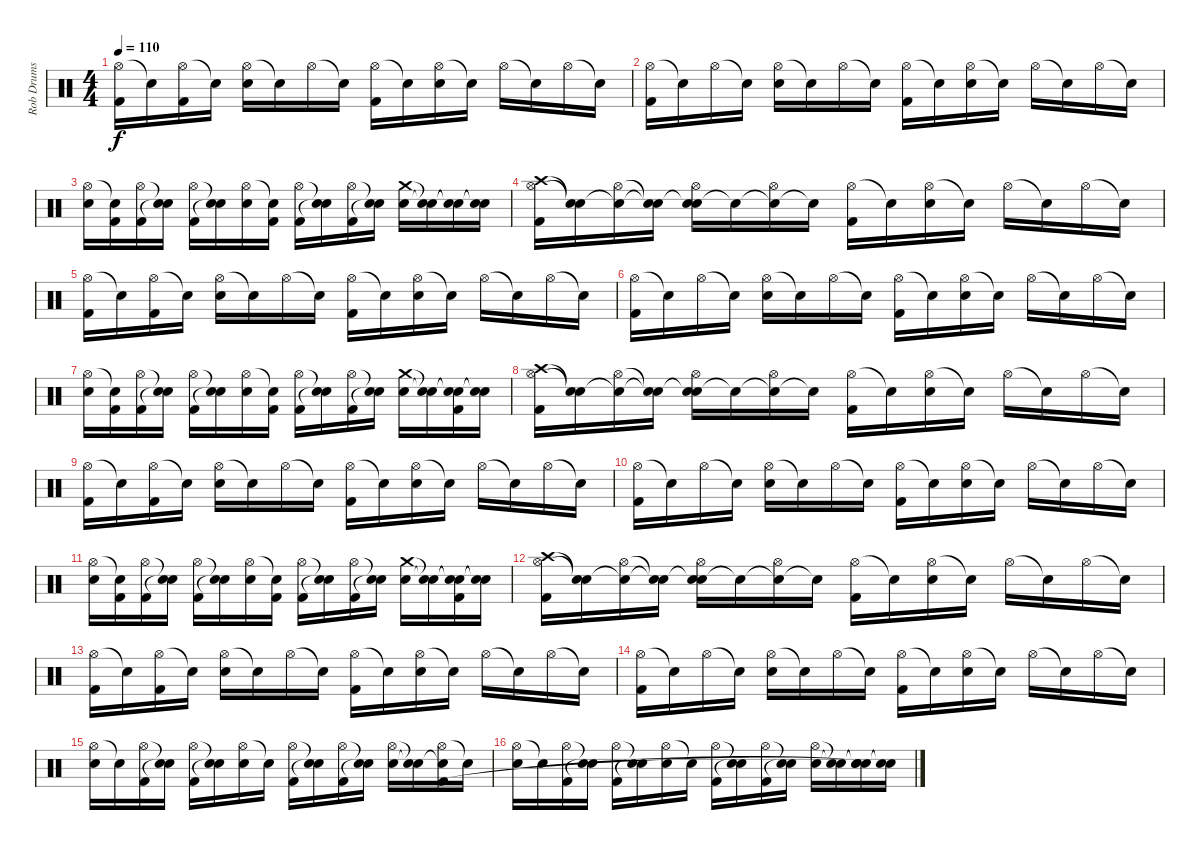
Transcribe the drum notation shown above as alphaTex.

\track ("Rob Drums" "Rob Drums") {instrument percussion}
\staff {score}
\articulation defaults
\ts (4 4)
\tempo 110
\clef neutral
\ks c
("Hi-Hat (open)" "Kick (hit) 2").16{dy f} "Snare (hit)"{t}.16 ("Hi-Hat (open)" "Kick (hit) 2").16 "Snare (hit)"{t}.16 ("Hi-Hat (open)" "Electric Snare (hit)").16 "Snare (hit)"{t}.16 "Hi-Hat (open)".16 "Snare (hit)"{t}.16 ("Hi-Hat (open)" "Kick (hit) 2").16 "Snare (hit)"{t}.16 ("Hi-Hat (open)" "Electric Snare (hit)").16 "Snare (hit)"{t}.16 "Hi-Hat (open)".16 "Snare (hit)"{t}.16 "Hi-Hat (open)".16 "Snare (hit)"{t}.16 |
("Hi-Hat (open)" "Kick (hit) 2").16 "Snare (hit)"{t}.16 "Hi-Hat (open)".16 "Snare (hit)"{t}.16 ("Hi-Hat (open)" "Electric Snare (hit)").16 "Snare (hit)"{t}.16 "Hi-Hat (open)".16 "Snare (hit)"{t}.16 ("Hi-Hat (open)" "Kick (hit) 2").16 "Snare (hit)"{t}.16 ("Hi-Hat (open)" "Electric Snare (hit)").16 "Snare (hit)"{t}.16 "Hi-Hat (open)".16 "Snare (hit)"{t}.16 "Hi-Hat (open)".16 "Snare (hit)"{t}.16 |
("Hi-Hat (open)" "Electric Snare (hit)").16 ("Snare (hit)"{t} "Kick (hit) 2").16 ("Hi-Hat (open)" "Kick (hit) 2").16 ("Snare (hit)"{t} "Snare (hit)"{t}).16 ("Hi-Hat (open)" "Kick (hit) 2").16 ("Snare (hit)"{t} "Snare (hit)"{t}).16 ("Hi-Hat (open)" "Electric Snare (hit)").16 ("Snare (hit)"{t} "Kick (hit) 2").16 ("Hi-Hat (open)" "Kick (hit) 2").16 ("Snare (hit)"{t} "Snare (hit)"{t}).16 ("Hi-Hat (open)" "Kick (hit) 2").16 ("Snare (hit)"{t} "Snare (hit)"{t}).16 ("Crash medium (hit)" "Electric Snare (hit)").16 ("Snare (hit)"{t} "Snare (hit)"{t}).16 ("Snare (hit)"{t} "Snare (hit)"{t}).16 ("Snare (hit)"{t} "Snare (hit)"{t}).16 |
("Crash high (hit)" "Hi-Hat (open)" "Kick (hit) 2").16 ("Snare (hit)"{t} "Snare (hit)"{t}).16 ("Snare (hit)"{t} "Hi-Hat (open)").16 ("Snare (hit)"{t} "Snare (hit)"{t}).16 ("Snare (hit)"{t} "Hi-Hat (open)" "Electric Snare (hit)").16 "Snare (hit)"{t}.16 ("Snare (hit)"{t} "Hi-Hat (open)").16 "Snare (hit)"{t}.16 ("Hi-Hat (open)" "Kick (hit) 2").16 "Snare (hit)"{t}.16 ("Hi-Hat (open)" "Electric Snare (hit)").16 "Snare (hit)"{t}.16 "Hi-Hat (open)".16 "Snare (hit)"{t}.16 "Hi-Hat (open)".16 "Snare (hit)"{t}.16 |
("Hi-Hat (open)" "Kick (hit) 2").16 "Snare (hit)"{t}.16 ("Hi-Hat (open)" "Kick (hit) 2").16 "Snare (hit)"{t}.16 ("Hi-Hat (open)" "Electric Snare (hit)").16 "Snare (hit)"{t}.16 "Hi-Hat (open)".16 "Snare (hit)"{t}.16 ("Hi-Hat (open)" "Kick (hit) 2").16 "Snare (hit)"{t}.16 ("Hi-Hat (open)" "Electric Snare (hit)").16 "Snare (hit)"{t}.16 "Hi-Hat (open)".16 "Snare (hit)"{t}.16 "Hi-Hat (open)".16 "Snare (hit)"{t}.16 |
("Hi-Hat (open)" "Kick (hit) 2").16 "Snare (hit)"{t}.16 "Hi-Hat (open)".16 "Snare (hit)"{t}.16 ("Hi-Hat (open)" "Electric Snare (hit)").16 "Snare (hit)"{t}.16 "Hi-Hat (open)".16 "Snare (hit)"{t}.16 ("Hi-Hat (open)" "Kick (hit) 2").16 "Snare (hit)"{t}.16 ("Hi-Hat (open)" "Electric Snare (hit)").16 "Snare (hit)"{t}.16 "Hi-Hat (open)".16 "Snare (hit)"{t}.16 "Hi-Hat (open)".16 "Snare (hit)"{t}.16 |
("Hi-Hat (open)" "Electric Snare (hit)").16 ("Snare (hit)"{t} "Kick (hit) 2").16 ("Hi-Hat (open)" "Kick (hit) 2").16 ("Snare (hit)"{t} "Snare (hit)"{t}).16 ("Hi-Hat (open)" "Kick (hit) 2").16 ("Snare (hit)"{t} "Snare (hit)"{t}).16 ("Hi-Hat (open)" "Electric Snare (hit)").16 ("Snare (hit)"{t} "Kick (hit) 2").16 ("Hi-Hat (open)" "Kick (hit) 2").16 ("Snare (hit)"{t} "Snare (hit)"{t}).16 ("Hi-Hat (open)" "Kick (hit) 2").16 ("Snare (hit)"{t} "Snare (hit)"{t}).16 ("Crash medium (hit)" "Electric Snare (hit)").16 ("Snare (hit)"{t} "Snare (hit)"{t}).16 ("Snare (hit)"{t} "Snare (hit)"{t} "Kick (hit) 2").16 ("Snare (hit)"{t} "Snare (hit)"{t}).16 |
("Crash high (hit)" "Hi-Hat (open)" "Kick (hit) 2").16{volume 13} ("Snare (hit)"{t} "Snare (hit)"{t}).16 ("Snare (hit)"{t} "Hi-Hat (open)").16 ("Snare (hit)"{t} "Snare (hit)"{t}).16 ("Snare (hit)"{t} "Hi-Hat (open)" "Electric Snare (hit)").16 "Snare (hit)"{t}.16 ("Snare (hit)"{t} "Hi-Hat (open)").16 "Snare (hit)"{t}.16 ("Hi-Hat (open)" "Kick (hit) 2").16 "Snare (hit)"{t}.16 ("Hi-Hat (open)" "Electric Snare (hit)").16 "Snare (hit)"{t}.16 "Hi-Hat (open)".16 "Snare (hit)"{t}.16 "Hi-Hat (open)".16 "Snare (hit)"{t}.16 |
("Hi-Hat (open)" "Kick (hit) 2").16 "Snare (hit)"{t}.16 ("Hi-Hat (open)" "Kick (hit) 2").16 "Snare (hit)"{t}.16 ("Hi-Hat (open)" "Electric Snare (hit)").16 "Snare (hit)"{t}.16 "Hi-Hat (open)".16 "Snare (hit)"{t}.16 ("Hi-Hat (open)" "Kick (hit) 2").16 "Snare (hit)"{t}.16 ("Hi-Hat (open)" "Electric Snare (hit)").16 "Snare (hit)"{t}.16 "Hi-Hat (open)".16 "Snare (hit)"{t}.16 "Hi-Hat (open)".16 "Snare (hit)"{t}.16 |
("Hi-Hat (open)" "Kick (hit) 2").16 "Snare (hit)"{t}.16 "Hi-Hat (open)".16 "Snare (hit)"{t}.16 ("Hi-Hat (open)" "Electric Snare (hit)").16 "Snare (hit)"{t}.16 "Hi-Hat (open)".16 "Snare (hit)"{t}.16 ("Hi-Hat (open)" "Kick (hit) 2").16 "Snare (hit)"{t}.16 ("Hi-Hat (open)" "Electric Snare (hit)").16 "Snare (hit)"{t}.16 "Hi-Hat (open)".16 "Snare (hit)"{t}.16 "Hi-Hat (open)".16 "Snare (hit)"{t}.16 |
("Hi-Hat (open)" "Electric Snare (hit)").16 ("Snare (hit)"{t} "Kick (hit) 2").16 ("Hi-Hat (open)" "Kick (hit) 2").16 ("Snare (hit)"{t} "Snare (hit)"{t}).16 ("Hi-Hat (open)" "Kick (hit) 2").16 ("Snare (hit)"{t} "Snare (hit)"{t}).16 ("Hi-Hat (open)" "Electric Snare (hit)").16 ("Snare (hit)"{t} "Kick (hit) 2").16 ("Hi-Hat (open)" "Kick (hit) 2").16 ("Snare (hit)"{t} "Snare (hit)"{t}).16 ("Hi-Hat (open)" "Kick (hit) 2").16 ("Snare (hit)"{t} "Snare (hit)"{t}).16 ("Crash medium (hit)" "Electric Snare (hit)").16 ("Snare (hit)"{t} "Snare (hit)"{t}).16 ("Snare (hit)"{t} "Snare (hit)"{t} "Kick (hit) 2").16 ("Snare (hit)"{t} "Snare (hit)"{t}).16 |
("Crash high (hit)" "Hi-Hat (open)" "Kick (hit) 2").16 ("Snare (hit)"{t} "Snare (hit)"{t}).16 ("Snare (hit)"{t} "Hi-Hat (open)").16 ("Snare (hit)"{t} "Snare (hit)"{t}).16 ("Snare (hit)"{t} "Hi-Hat (open)" "Electric Snare (hit)").16 "Snare (hit)"{t}.16 ("Snare (hit)"{t} "Hi-Hat (open)").16 "Snare (hit)"{t}.16 ("Hi-Hat (open)" "Kick (hit) 2").16 "Snare (hit)"{t}.16 ("Hi-Hat (open)" "Electric Snare (hit)").16 "Snare (hit)"{t}.16 "Hi-Hat (open)".16 "Snare (hit)"{t}.16 "Hi-Hat (open)".16 "Snare (hit)"{t}.16 |
("Hi-Hat (open)" "Kick (hit) 2").16 "Snare (hit)"{t}.16 ("Hi-Hat (open)" "Kick (hit) 2").16 "Snare (hit)"{t}.16 ("Hi-Hat (open)" "Electric Snare (hit)").16 "Snare (hit)"{t}.16 "Hi-Hat (open)".16 "Snare (hit)"{t}.16 ("Hi-Hat (open)" "Kick (hit) 2").16 "Snare (hit)"{t}.16 ("Hi-Hat (open)" "Electric Snare (hit)").16 "Snare (hit)"{t}.16 "Hi-Hat (open)".16 "Snare (hit)"{t}.16 "Hi-Hat (open)".16 "Snare (hit)"{t}.16 |
("Hi-Hat (open)" "Kick (hit) 2").16 "Snare (hit)"{t}.16 "Hi-Hat (open)".16 "Snare (hit)"{t}.16 ("Hi-Hat (open)" "Electric Snare (hit)").16 "Snare (hit)"{t}.16 "Hi-Hat (open)".16 "Snare (hit)"{t}.16 ("Hi-Hat (open)" "Kick (hit) 2").16 "Snare (hit)"{t}.16 ("Hi-Hat (open)" "Electric Snare (hit)").16 "Snare (hit)"{t}.16 "Hi-Hat (open)".16 "Snare (hit)"{t}.16 "Hi-Hat (open)".16 "Snare (hit)"{t}.16 |
("Hi-Hat (open)" "Electric Snare (hit)").16 "Snare (hit)"{t}.16 ("Hi-Hat (open)" "Kick (hit) 2").16 ("Snare (hit)"{t} "Snare (hit)"{t}).16 ("Hi-Hat (open)" "Kick (hit) 2").16 ("Snare (hit)"{t} "Snare (hit)"{t}).16 ("Hi-Hat (open)" "Electric Snare (hit)").16 "Snare (hit)"{t}.16 ("Hi-Hat (open)" "Kick (hit) 2").16 ("Snare (hit)"{t} "Snare (hit)"{t}).16 ("Hi-Hat (open)" "Kick (hit) 2").16 ("Snare (hit)"{t} "Snare (hit)"{t}).16 ("Hi-Hat (open)" "Electric Snare (hit)").16 ("Snare (hit)"{t} "Snare (hit)"{t}).16 ("Hi-Hat (open)" "Snare (hit)"{t} "Kick (hit) 2").16 "Snare (hit)"{t}.16 |
("Hi-Hat (open)" "Electric Snare (hit)").16 "Snare (hit)"{t}.16 ("Hi-Hat (open)" "Kick (hit) 2").16 ("Snare (hit)"{t} "Snare (hit)"{t}).16 ("Hi-Hat (open)" "Kick (hit) 2").16 ("Snare (hit)"{t} "Snare (hit)"{t}).16 ("Hi-Hat (open)" "Electric Snare (hit)").16 "Snare (hit)"{t}.16 ("Hi-Hat (open)" "Kick (hit) 2").16 ("Snare (hit)"{t} "Snare (hit)"{t}).16 ("Hi-Hat (open)" "Kick (hit) 2").16 ("Snare (hit)"{t} "Snare (hit)"{t}).16 ("Hi-Hat (open)" "Electric Snare (hit)").16 ("Snare (hit)"{t} "Snare (hit)"{t}).16 ("Snare (hit)"{t} "Snare (hit)"{t} "Snare (hit)"{t}).16 ("Snare (hit)"{t} "Snare (hit)"{t}).16
